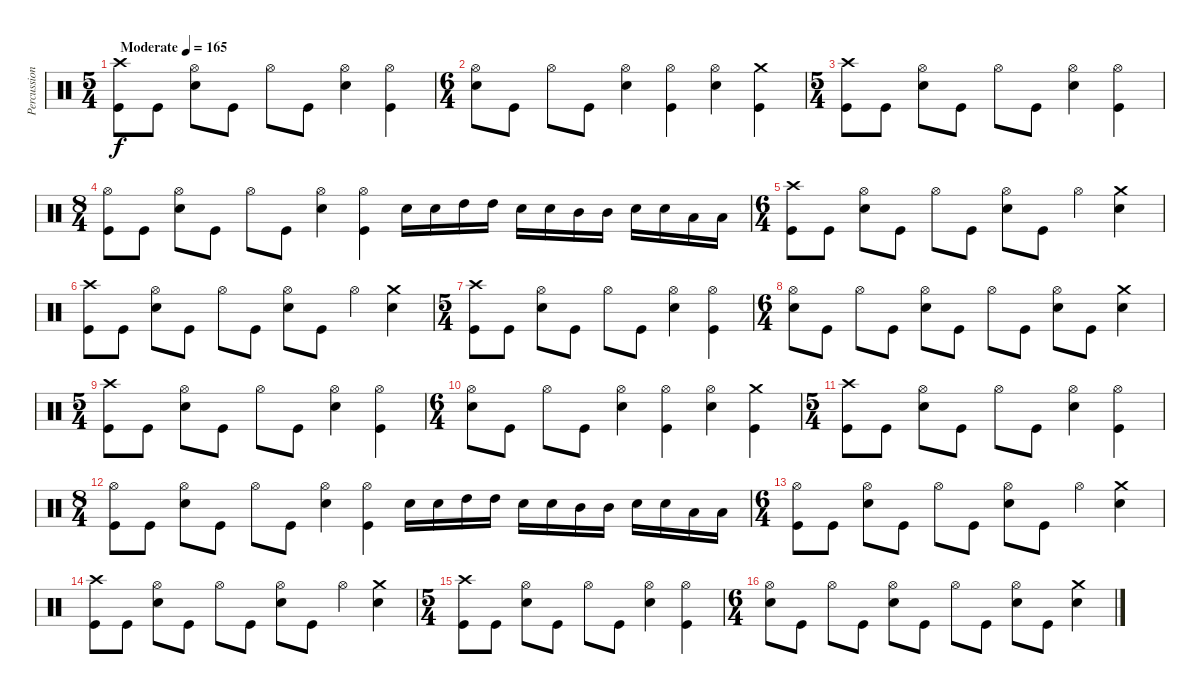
\track ("Percussion" "Percussion") {instrument percussion}
\staff {score}
\articulation defaults
\ts (5 4)
\tempo (165 "Moderate")
\clef neutral
\ks c
("Crash high (hit)" "Kick (hit)").8{dy f} "Kick (hit)".8 ("Hi-Hat (open)" "Electric Snare (hit)").8 "Kick (hit)".8 "Hi-Hat (open)".8 "Kick (hit)".8 ("Hi-Hat (open)" "Electric Snare (hit)").4 ("Hi-Hat (open)" "Kick (hit)").4 |
\ts (6 4)
("Hi-Hat (open)" "Electric Snare (hit)").8 "Kick (hit)".8 "Hi-Hat (open)".8 "Kick (hit)".8 ("Hi-Hat (open)" "Electric Snare (hit)").4 ("Hi-Hat (open)" "Kick (hit)").4 ("Hi-Hat (open)" "Electric Snare (hit)").4 ("Crash medium (hit)" "Kick (hit)").4 |
\ts (5 4)
("Crash high (hit)" "Kick (hit)").8 "Kick (hit)".8 ("Hi-Hat (open)" "Electric Snare (hit)").8 "Kick (hit)".8 "Hi-Hat (open)".8 "Kick (hit)".8 ("Hi-Hat (open)" "Electric Snare (hit)").4 ("Hi-Hat (open)" "Kick (hit)").4 |
\ts (8 4)
("Hi-Hat (open)" "Kick (hit)").8 "Kick (hit)".8 ("Hi-Hat (open)" "Electric Snare (hit)").8 "Kick (hit)".8 "Hi-Hat (open)".8 "Kick (hit)".8 ("Hi-Hat (open)" "Electric Snare (hit)").4 ("Hi-Hat (open)" "Kick (hit)").4 "Electric Snare (hit)".16 "Electric Snare (hit)".16 "High Tom (hit)".16 "High Tom (hit)".16 "Electric Snare (hit)".16 "Electric Snare (hit)".16 "Mid Tom (hit)".16 "Mid Tom (hit)".16 "Electric Snare (hit)".16 "Electric Snare (hit)".16 "Low Tom (hit)".16 "Low Tom (hit)".16 |
\ts (6 4)
("Crash high (hit)" "Kick (hit)").8 "Kick (hit)".8 ("Hi-Hat (open)" "Electric Snare (hit)").8 "Kick (hit)".8 "Hi-Hat (open)".8 "Kick (hit)".8 ("Hi-Hat (open)" "Electric Snare (hit)").8 "Kick (hit)".8 "Hi-Hat (open)".4 ("Crash medium (hit)" "Electric Snare (hit)").4 |
("Crash high (hit)" "Kick (hit)").8 "Kick (hit)".8 ("Hi-Hat (open)" "Electric Snare (hit)").8 "Kick (hit)".8 "Hi-Hat (open)".8 "Kick (hit)".8 ("Hi-Hat (open)" "Electric Snare (hit)").8 "Kick (hit)".8 "Hi-Hat (open)".4 ("Crash medium (hit)" "Electric Snare (hit)").4 |
\ts (5 4)
("Crash high (hit)" "Kick (hit)").8 "Kick (hit)".8 ("Hi-Hat (open)" "Electric Snare (hit)").8 "Kick (hit)".8 "Hi-Hat (open)".8 "Kick (hit)".8 ("Hi-Hat (open)" "Electric Snare (hit)").4 ("Hi-Hat (open)" "Kick (hit)").4 |
\ts (6 4)
("Hi-Hat (open)" "Electric Snare (hit)").8 "Kick (hit)".8 "Hi-Hat (open)".8 "Kick (hit)".8 ("Hi-Hat (open)" "Electric Snare (hit)").8 "Kick (hit)".8 "Hi-Hat (open)".8 "Kick (hit)".8 ("Hi-Hat (open)" "Electric Snare (hit)").8 "Kick (hit)".8 ("Crash medium (hit)" "Electric Snare (hit)").4 |
\ts (5 4)
("Crash high (hit)" "Kick (hit)").8 "Kick (hit)".8 ("Hi-Hat (open)" "Electric Snare (hit)").8 "Kick (hit)".8 "Hi-Hat (open)".8 "Kick (hit)".8 ("Hi-Hat (open)" "Electric Snare (hit)").4 ("Hi-Hat (open)" "Kick (hit)").4 |
\ts (6 4)
("Hi-Hat (open)" "Electric Snare (hit)").8 "Kick (hit)".8 "Hi-Hat (open)".8 "Kick (hit)".8 ("Hi-Hat (open)" "Electric Snare (hit)").4 ("Hi-Hat (open)" "Kick (hit)").4 ("Hi-Hat (open)" "Electric Snare (hit)").4 ("Crash medium (hit)" "Kick (hit)").4 |
\ts (5 4)
("Crash high (hit)" "Kick (hit)").8 "Kick (hit)".8 ("Hi-Hat (open)" "Electric Snare (hit)").8 "Kick (hit)".8 "Hi-Hat (open)".8 "Kick (hit)".8 ("Hi-Hat (open)" "Electric Snare (hit)").4 ("Hi-Hat (open)" "Kick (hit)").4 |
\ts (8 4)
("Hi-Hat (open)" "Kick (hit)").8 "Kick (hit)".8 ("Hi-Hat (open)" "Electric Snare (hit)").8 "Kick (hit)".8 "Hi-Hat (open)".8 "Kick (hit)".8 ("Hi-Hat (open)" "Electric Snare (hit)").4 ("Hi-Hat (open)" "Kick (hit)").4 "Electric Snare (hit)".16 "Electric Snare (hit)".16 "High Tom (hit)".16 "High Tom (hit)".16 "Electric Snare (hit)".16 "Electric Snare (hit)".16 "Mid Tom (hit)".16 "Mid Tom (hit)".16 "Electric Snare (hit)".16 "Electric Snare (hit)".16 "Low Tom (hit)".16 "Low Tom (hit)".16 |
\ts (6 4)
("Hi-Hat (open)" "Kick (hit)").8 "Kick (hit)".8 ("Hi-Hat (open)" "Electric Snare (hit)").8 "Kick (hit)".8 "Hi-Hat (open)".8 "Kick (hit)".8 ("Hi-Hat (open)" "Electric Snare (hit)").8 "Kick (hit)".8 "Hi-Hat (open)".4 ("Crash medium (hit)" "Electric Snare (hit)").4 |
("Crash high (hit)" "Kick (hit)").8 "Kick (hit)".8 ("Hi-Hat (open)" "Electric Snare (hit)").8 "Kick (hit)".8 "Hi-Hat (open)".8 "Kick (hit)".8 ("Hi-Hat (open)" "Electric Snare (hit)").8 "Kick (hit)".8 "Hi-Hat (open)".4 ("Crash medium (hit)" "Electric Snare (hit)").4 |
\ts (5 4)
("Crash high (hit)" "Kick (hit)").8 "Kick (hit)".8 ("Hi-Hat (open)" "Electric Snare (hit)").8 "Kick (hit)".8 "Hi-Hat (open)".8 "Kick (hit)".8 ("Hi-Hat (open)" "Electric Snare (hit)").4 ("Hi-Hat (open)" "Kick (hit)").4 |
\ts (6 4)
("Hi-Hat (open)" "Electric Snare (hit)").8 "Kick (hit)".8 "Hi-Hat (open)".8 "Kick (hit)".8 ("Hi-Hat (open)" "Electric Snare (hit)").8 "Kick (hit)".8 "Hi-Hat (open)".8 "Kick (hit)".8 ("Hi-Hat (open)" "Electric Snare (hit)").8 "Kick (hit)".8 ("Crash medium (hit)" "Electric Snare (hit)").4
